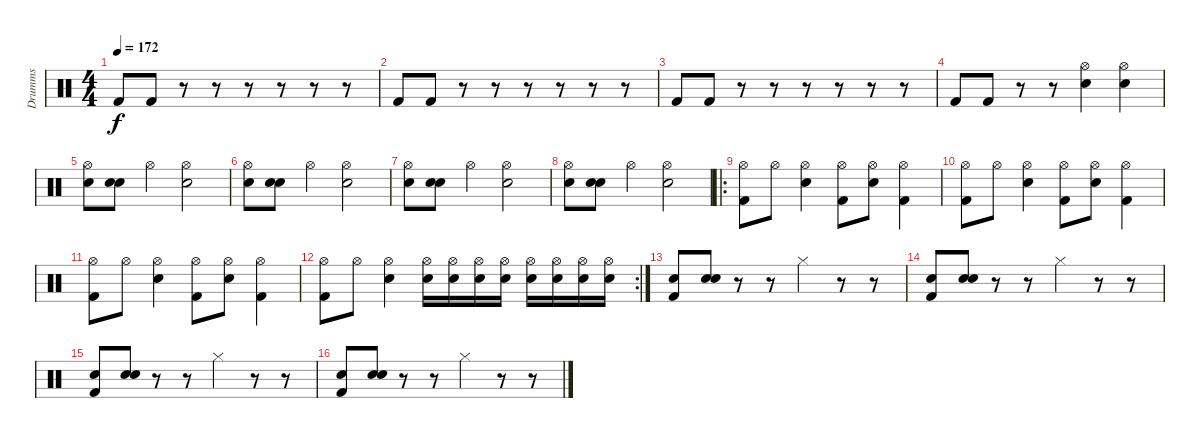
\track ("Drumms" "Drumms") {instrument percussion}
\staff
\articulation defaults
\ts (4 4)
\tempo 172
\clef neutral
\ks c "Kick (hit) 2".8{dy f} "Kick (hit) 2".8
r.8 r.8 r.8 r.8 r.8 r.8 |
"Kick (hit) 2".8 "Kick (hit) 2".8 r.8 r.8 r.8 r.8 r.8 r.8 |
"Kick (hit) 2".8 "Kick (hit) 2".8 r.8 r.8 r.8 r.8 r.8 r.8 |
"Kick (hit) 2".8 "Kick (hit) 2".8 r.8 r.8 ("Hi-Hat (open)" "Electric Snare (hit)").4 ("Hi-Hat (open)" "Electric Snare (hit)").4 |
("Hi-Hat (open)" "Electric Snare (hit)").8 ("Snare (hit) 2" "Electric Snare (hit)").8 "Hi-Hat (open)".4 ("Hi-Hat (open)" "Electric Snare (hit)").2 |
("Hi-Hat (open)" "Electric Snare (hit)").8 ("Snare (hit) 2" "Electric Snare (hit)").8 "Hi-Hat (open)".4 ("Hi-Hat (open)" "Electric Snare (hit)").2 |
("Hi-Hat (open)" "Electric Snare (hit)").8 ("Snare (hit) 2" "Electric Snare (hit)").8 "Hi-Hat (open)".4 ("Hi-Hat (open)" "Electric Snare (hit)").2 |
("Hi-Hat (open)" "Electric Snare (hit)").8 ("Snare (hit) 2" "Electric Snare (hit)").8 "Hi-Hat (open)".4 ("Hi-Hat (open)" "Electric Snare (hit)").2 |
\ro
("Kick (hit) 2" "Hi-Hat (open)").8 "Hi-Hat (open)".8 ("Snare (hit) 2" "Hi-Hat (open)").4 ("Kick (hit) 2" "Hi-Hat (open)").8 ("Snare (hit) 2" "Hi-Hat (open)").8 ("Kick (hit) 2" "Hi-Hat (open)").4 |
("Kick (hit) 2" "Hi-Hat (open)").8 "Hi-Hat (open)".8 ("Snare (hit) 2" "Hi-Hat (open)").4 ("Kick (hit) 2" "Hi-Hat (open)").8 ("Snare (hit) 2" "Hi-Hat (open)").8 ("Kick (hit) 2" "Hi-Hat (open)").4 |
("Kick (hit) 2" "Hi-Hat (open)").8 "Hi-Hat (open)".8 ("Snare (hit) 2" "Hi-Hat (open)").4 ("Kick (hit) 2" "Hi-Hat (open)").8 ("Snare (hit) 2" "Hi-Hat (open)").8 ("Kick (hit) 2" "Hi-Hat (open)").4 |
\rc 2
("Kick (hit) 2" "Hi-Hat (open)").8 "Hi-Hat (open)".8 ("Snare (hit) 2" "Hi-Hat (open)").4 ("Snare (hit) 2" "Hi-Hat (open)").16 ("Electric Snare (hit)" "Hi-Hat (open)").16 ("Snare (hit) 2" "Hi-Hat (open)").16 ("Electric Snare (hit)" "Hi-Hat (open)").16 ("Snare (hit) 2" "Hi-Hat (open)").16 ("Electric Snare (hit)" "Hi-Hat (open)").16 ("Snare (hit) 2" "Hi-Hat (open)").16 ("Electric Snare (hit)" "Hi-Hat (open)").16 |
("Electric Snare (hit)" "Kick (hit) 2").8 ("Electric Snare (hit)" "Snare (hit) 2").8 r.8 r.8 "Hi-Hat (closed)".4 r.8 r.8 |
("Electric Snare (hit)" "Kick (hit) 2").8 ("Electric Snare (hit)" "Snare (hit) 2").8 r.8 r.8 "Hi-Hat (closed)".4 r.8 r.8 |
("Electric Snare (hit)" "Kick (hit) 2").8 ("Electric Snare (hit)" "Snare (hit) 2").8 r.8 r.8 "Hi-Hat (closed)".4 r.8 r.8 |
("Electric Snare (hit)" "Kick (hit) 2").8 ("Electric Snare (hit)" "Snare (hit) 2").8 r.8 r.8 "Hi-Hat (closed)".4 r.8 r.8
